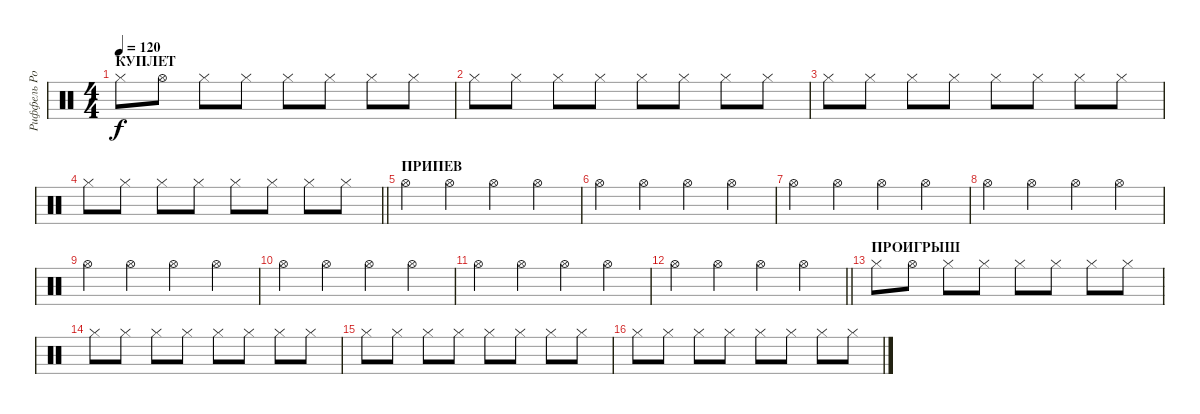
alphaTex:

\track ("Риффель Роман (хэты)" "Риффель Ро") {instrument percussion}
\staff {score}
\articulation defaults
\ts (4 4)
\section ("" "КУПЛЕТ")
\tempo 120
\clef neutral
\ks c "Hi-Hat (closed)".8{dy f} "Hi-Hat (open)".8 "Hi-Hat (closed)".8 "Hi-Hat (closed)".8 "Hi-Hat (closed)".8 "Hi-Hat (closed)".8 "Hi-Hat (closed)".8 "Hi-Hat (closed)".8
|
"Hi-Hat (closed)".8 "Hi-Hat (closed)".8 "Hi-Hat (closed)".8 "Hi-Hat (closed)".8 "Hi-Hat (closed)".8 "Hi-Hat (closed)".8 "Hi-Hat (closed)".8 "Hi-Hat (closed)".8 |
"Hi-Hat (closed)".8 "Hi-Hat (closed)".8 "Hi-Hat (closed)".8 "Hi-Hat (closed)".8 "Hi-Hat (closed)".8 "Hi-Hat (closed)".8 "Hi-Hat (closed)".8 "Hi-Hat (closed)".8 |
\barLineRight lightlight "Hi-Hat (closed)".8 "Hi-Hat (closed)".8 "Hi-Hat (closed)".8 "Hi-Hat (closed)".8 "Hi-Hat (closed)".8 "Hi-Hat (closed)".8 "Hi-Hat (closed)".8 "Hi-Hat (closed)".8
|
\section ("" "ПРИПЕВ")
"Hi-Hat (open)".4 "Hi-Hat (open)".4 "Hi-Hat (open)".4 "Hi-Hat (open)".4 |
"Hi-Hat (open)".4 "Hi-Hat (open)".4 "Hi-Hat (open)".4 "Hi-Hat (open)".4 |
"Hi-Hat (open)".4 "Hi-Hat (open)".4 "Hi-Hat (open)".4 "Hi-Hat (open)".4 |
"Hi-Hat (open)".4 "Hi-Hat (open)".4 "Hi-Hat (open)".4 "Hi-Hat (open)".4 |
"Hi-Hat (open)".4 "Hi-Hat (open)".4 "Hi-Hat (open)".4 "Hi-Hat (open)".4 |
"Hi-Hat (open)".4 "Hi-Hat (open)".4 "Hi-Hat (open)".4 "Hi-Hat (open)".4 |
"Hi-Hat (open)".4 "Hi-Hat (open)".4 "Hi-Hat (open)".4 "Hi-Hat (open)".4 |
\barLineRight lightlight "Hi-Hat (open)".4 "Hi-Hat (open)".4 "Hi-Hat (open)".4 "Hi-Hat (open)".4
|
\section ("" "ПРОИГРЫШ")
"Hi-Hat (closed)".8 "Hi-Hat (open)".8 "Hi-Hat (closed)".8 "Hi-Hat (closed)".8 "Hi-Hat (closed)".8 "Hi-Hat (closed)".8 "Hi-Hat (closed)".8 "Hi-Hat (closed)".8 |
"Hi-Hat (closed)".8 "Hi-Hat (closed)".8 "Hi-Hat (closed)".8 "Hi-Hat (closed)".8 "Hi-Hat (closed)".8 "Hi-Hat (closed)".8 "Hi-Hat (closed)".8 "Hi-Hat (closed)".8 |
"Hi-Hat (closed)".8 "Hi-Hat (closed)".8 "Hi-Hat (closed)".8 "Hi-Hat (closed)".8 "Hi-Hat (closed)".8 "Hi-Hat (closed)".8 "Hi-Hat (closed)".8 "Hi-Hat (closed)".8 |
"Hi-Hat (closed)".8 "Hi-Hat (closed)".8 "Hi-Hat (closed)".8 "Hi-Hat (closed)".8 "Hi-Hat (closed)".8 "Hi-Hat (closed)".8 "Hi-Hat (closed)".8 "Hi-Hat (closed)".8
